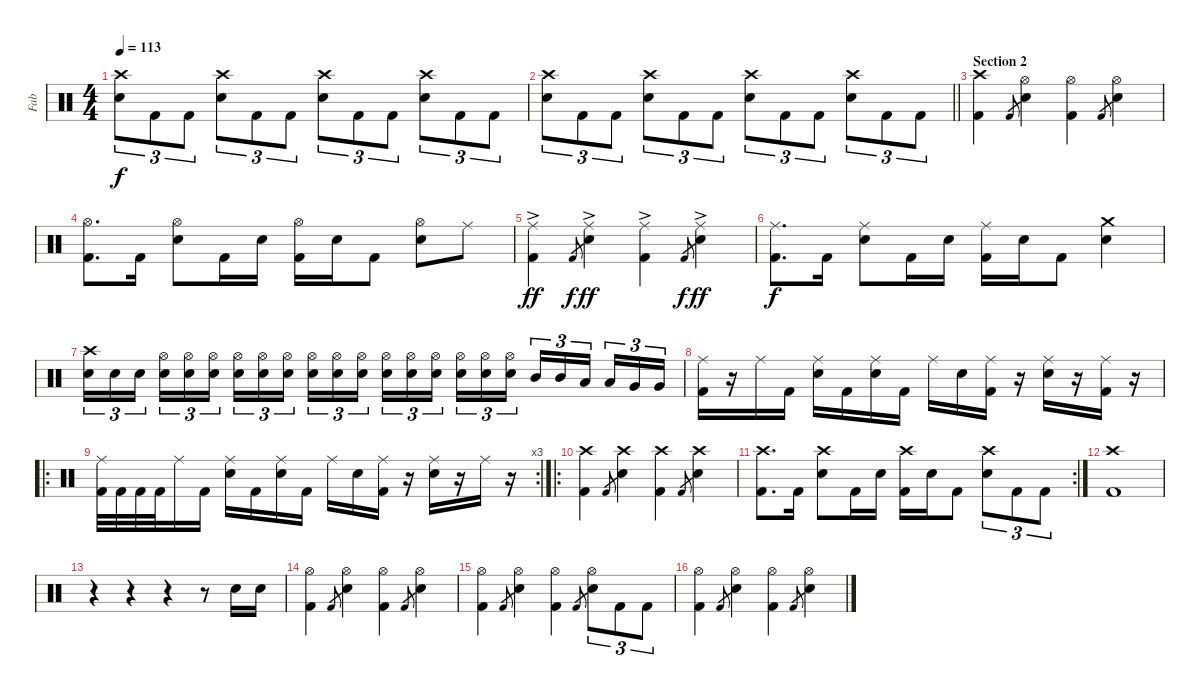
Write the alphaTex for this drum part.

\track ("Fab" "Fab") {instrument percussion}
\staff {score}
\articulation defaults
\ts (4 4)
\tempo 113
\clef neutral
\ks c
("Crash high (hit)" "Electric Snare (hit)").8{tu (3 2) dy f} "Kick (hit) 2".8{tu (3 2)} "Kick (hit) 2".8{tu (3 2)} ("Crash high (hit)" "Electric Snare (hit)").8{tu (3 2)} "Kick (hit) 2".8{tu (3 2)} "Kick (hit) 2".8{tu (3 2)} ("Crash high (hit)" "Electric Snare (hit)").8{tu (3 2)} "Kick (hit) 2".8{tu (3 2)} "Kick (hit) 2".8{tu (3 2)} ("Crash high (hit)" "Electric Snare (hit)").8{tu (3 2)} "Kick (hit) 2".8{tu (3 2)} "Kick (hit) 2".8{tu (3 2)} |
\barLineRight lightlight
("Crash high (hit)" "Electric Snare (hit)").8{tu (3 2)} "Kick (hit) 2".8{tu (3 2)} "Kick (hit) 2".8{tu (3 2)} ("Crash high (hit)" "Electric Snare (hit)").8{tu (3 2)} "Kick (hit) 2".8{tu (3 2)} "Kick (hit) 2".8{tu (3 2)} ("Crash high (hit)" "Electric Snare (hit)").8{tu (3 2)} "Kick (hit) 2".8{tu (3 2)} "Kick (hit) 2".8{tu (3 2)} ("Crash high (hit)" "Electric Snare (hit)").8{tu (3 2)} "Kick (hit) 2".8{tu (3 2)} "Kick (hit) 2".8{tu (3 2)} |
\section ("" "Section 2")
("Crash high (hit)" "Kick (hit) 2").4 "Kick (hit) 2".8{gr} ("Hi-Hat (open)" "Electric Snare (hit)").4 ("Hi-Hat (open)" "Kick (hit) 2").4 "Kick (hit) 2".8{gr} ("Hi-Hat (open)" "Electric Snare (hit)").4 |
("Hi-Hat (open)" "Kick (hit) 2").8{d} "Kick (hit) 2".16 ("Hi-Hat (open)" "Electric Snare (hit)").8 "Kick (hit) 2".16 "Electric Snare (hit)".16 ("Hi-Hat (open)" "Kick (hit) 2").16 "Electric Snare (hit)".16 "Kick (hit) 2".8 ("Hi-Hat (open)" "Electric Snare (hit)").8 "Ride (middle)".8 |
("Ride (middle)"{ac} "Kick (hit) 2").4{dy ff} "Kick (hit) 2".8{gr dy f} ("Ride (middle)"{ac} "Electric Snare (hit)").4{dy ff} ("Ride (middle)"{ac} "Kick (hit) 2").4 "Kick (hit) 2".8{gr dy f} ("Ride (middle)"{ac} "Electric Snare (hit)").4{dy ff} |
("Ride (middle)" "Kick (hit) 2").8{d dy f} "Kick (hit) 2".16 ("Ride (middle)" "Electric Snare (hit)").8 "Kick (hit) 2".16 "Electric Snare (hit)".16 ("Ride (middle)" "Kick (hit) 2").16 "Electric Snare (hit)".16 "Kick (hit) 2".8 ("Crash medium (hit)" "Electric Snare (hit)").4 |
("Crash high (hit)" "Electric Snare (hit)").16{tu (3 2)} "Electric Snare (hit)".16{tu (3 2)} "Electric Snare (hit)".16{tu (3 2)} ("Hi-Hat (open)" "Electric Snare (hit)").16{tu (3 2)} ("Hi-Hat (open)" "Electric Snare (hit)").16{tu (3 2)} ("Hi-Hat (open)" "Electric Snare (hit)").16{tu (3 2)} ("Hi-Hat (open)" "Electric Snare (hit)").16{tu (3 2)} ("Hi-Hat (open)" "Electric Snare (hit)").16{tu (3 2)} ("Hi-Hat (open)" "Electric Snare (hit)").16{tu (3 2)} ("Hi-Hat (open)" "Electric Snare (hit)").16{tu (3 2)} ("Hi-Hat (open)" "Electric Snare (hit)").16{tu (3 2)} ("Hi-Hat (open)" "Electric Snare (hit)").16{tu (3 2)} ("Hi-Hat (open)" "Electric Snare (hit)").16{tu (3 2)} ("Hi-Hat (open)" "Electric Snare (hit)").16{tu (3 2)} ("Hi-Hat (open)" "Electric Snare (hit)").16{tu (3 2)} ("Hi-Hat (open)" "Electric Snare (hit)").16{tu (3 2)} ("Hi-Hat (open)" "Electric Snare (hit)").16{tu (3 2)} ("Hi-Hat (open)" "Electric Snare (hit)").16{tu (3 2)} "Mid Tom (hit)".16{tu (3 2)} "Mid Tom (hit)".16{tu (3 2)} "Low Tom (hit)".16{tu (3 2)} "Low Tom (hit)".16{tu (3 2)} "Very Low Tom (hit)".16{tu (3 2)} "Very Low Tom (hit)".16{tu (3 2)} |
("Ride (middle)" "Kick (hit) 2").16 r.16 "Ride (middle)".16 "Kick (hit) 2".16 ("Ride (middle)" "Electric Snare (hit)").16 "Kick (hit) 2".16 ("Ride (middle)" "Electric Snare (hit)").16 "Kick (hit) 2".16 "Ride (middle)".16 "Electric Snare (hit)".16 ("Ride (middle)" "Kick (hit) 2").16 r.16 ("Ride (middle)" "Electric Snare (hit)").16 r.16 ("Ride (middle)" "Kick (hit) 2").16 r.16 |
\ro
\rc 3
("Ride (middle)" "Kick (hit) 2").32 "Kick (hit) 2".32 "Kick (hit) 2".32 "Kick (hit) 2".32 "Ride (middle)".16 "Kick (hit) 2".16 ("Ride (middle)" "Electric Snare (hit)").16 "Kick (hit) 2".16 ("Ride (middle)" "Electric Snare (hit)").16 "Kick (hit) 2".16 "Ride (middle)".16 "Electric Snare (hit)".16 ("Ride (middle)" "Kick (hit) 2").16 r.16 ("Ride (middle)" "Electric Snare (hit)").16 r.16 "Ride (middle)".16 r.16 |
\ro
("Crash high (hit)" "Kick (hit) 2").4 "Kick (hit) 2".8{gr} ("Crash high (hit)" "Electric Snare (hit)").4 ("Crash high (hit)" "Kick (hit) 2").4 "Kick (hit) 2".8{gr} ("Crash high (hit)" "Electric Snare (hit)").4 |
\rc 2
("Crash high (hit)" "Kick (hit) 2").8{d} "Kick (hit) 2".16 ("Crash high (hit)" "Electric Snare (hit)").8 "Kick (hit) 2".16 "Electric Snare (hit)".16 ("Crash high (hit)" "Kick (hit) 2").16 "Electric Snare (hit)".16 "Kick (hit) 2".8 ("Crash high (hit)" "Electric Snare (hit)").8{tu (3 2)} "Kick (hit) 2".8{tu (3 2)} "Kick (hit) 2".8{tu (3 2)} |
("Crash high (hit)" "Kick (hit) 2").1 |
r.4 r.4 r.4 r.8 "Electric Snare (hit)".16 "Electric Snare (hit)".16 |
("Hi-Hat (open)" "Kick (hit) 2").4 "Kick (hit) 2".8{gr} ("Hi-Hat (open)" "Electric Snare (hit)").4 ("Hi-Hat (open)" "Kick (hit) 2").4 "Kick (hit) 2".8{gr} ("Hi-Hat (open)" "Electric Snare (hit)").4 |
("Hi-Hat (open)" "Kick (hit) 2").4 "Kick (hit) 2".8{gr} ("Hi-Hat (open)" "Electric Snare (hit)").4 ("Hi-Hat (open)" "Kick (hit) 2").4 "Kick (hit) 2".8{gr} ("Hi-Hat (open)" "Electric Snare (hit)").8{tu (3 2)} "Kick (hit) 2".8{tu (3 2)} "Kick (hit) 2".8{tu (3 2)} |
("Hi-Hat (open)" "Kick (hit) 2").4 "Kick (hit) 2".8{gr} ("Hi-Hat (open)" "Electric Snare (hit)").4 ("Hi-Hat (open)" "Kick (hit) 2").4 "Kick (hit) 2".8{gr} ("Hi-Hat (open)" "Electric Snare (hit)").4
